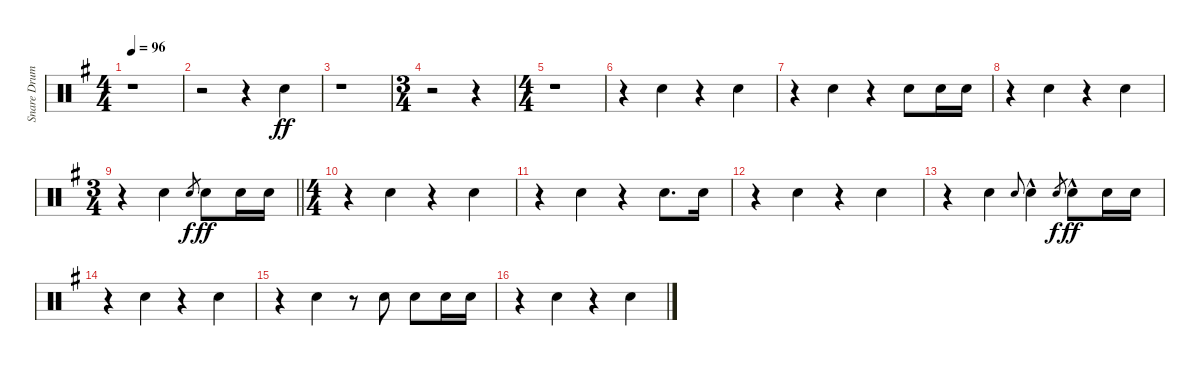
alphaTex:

\track ("Snare Drum" "Snare Drum") {instrument percussion}
\staff {score}
\articulation defaults
\ts (4 4)
\tempo 96
\clef neutral
\ks g
r.1{dy ff} |
r.2 r.4 "Electric Snare (hit)".4 |
r.1 |
\ts (3 4)
r.2 r.4 |
\ts (4 4)
r.1 |
r.4{beam merge} "Electric Snare (hit)".4 r.4{beam merge} "Electric Snare (hit)".4 |
r.4{beam merge} "Electric Snare (hit)".4 r.4 "Electric Snare (hit)".8 "Electric Snare (hit)".16 "Electric Snare (hit)".16 |
r.4{beam merge} "Electric Snare (hit)".4 r.4{beam merge} "Electric Snare (hit)".4 |
\ts (3 4)
\barLineRight lightlight
r.4{beam merge} "Electric Snare (hit)".4 "Electric Snare (hit)".8{gr dy f} "Electric Snare (hit)".8{dy ff} "Electric Snare (hit)".16 "Electric Snare (hit)".16 |
\ts (4 4)
r.4{beam merge} "Electric Snare (hit)".4 r.4{beam merge} "Electric Snare (hit)".4 |
r.4{beam merge} "Electric Snare (hit)".4 r.4 "Electric Snare (hit)".8{d} "Electric Snare (hit)".16 |
r.4{beam merge} "Electric Snare (hit)".4 r.4{beam merge} "Electric Snare (hit)".4 |
r.4{beam merge} "Electric Snare (hit)".4 "Electric Snare (hit)".8{gr onbeat} "Electric Snare (hit)"{hac}.4 "Electric Snare (hit)".8{gr dy f} "Electric Snare (hit)"{hac}.8{dy ff} "Electric Snare (hit)".16 "Electric Snare (hit)".16 |
r.4{beam merge} "Electric Snare (hit)".4 r.4{beam merge} "Electric Snare (hit)".4 |
r.4{beam merge} "Electric Snare (hit)".4 r.8 "Electric Snare (hit)".8 "Electric Snare (hit)".8 "Electric Snare (hit)".16 "Electric Snare (hit)".16 |
r.4{beam merge} "Electric Snare (hit)".4 r.4{beam merge} "Electric Snare (hit)".4
